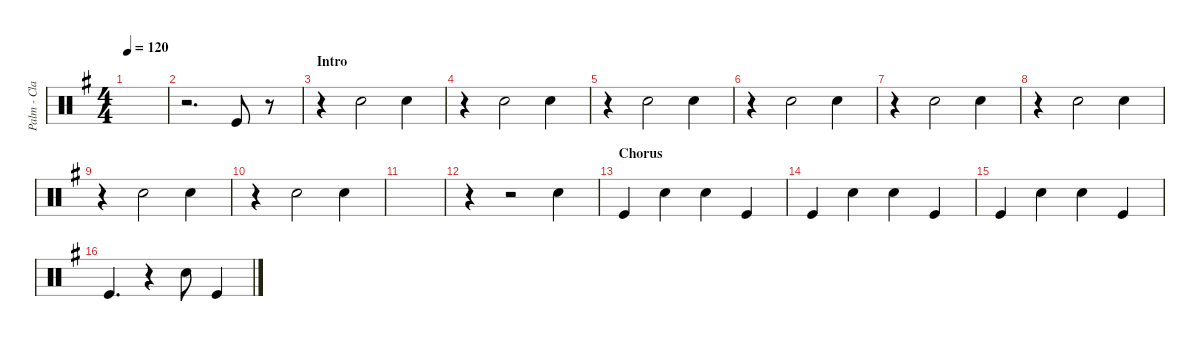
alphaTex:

\defaultSystemsLayout 4
\hideDynamics
\bracketExtendMode nobrackets
\otherSystemsTrackNameOrientation horizontal
\track ("Palm - Clap" "Palm - Cla") {defaultSystemsLayout 2 instrument percussion}
\staff {score}
\articulation defaults
\ts (4 4)
\tempo 120
\clef neutral
\ks g
|
r.2{d} "Kick (hit)"{acc forcenatural}.8 r.8 |
\section ("" "Intro")
r.4 "Hand Clap (hit)"{acc forcenatural}.2 "Hand Clap (hit)"{acc forcenatural}.4 |
r.4 "Hand Clap (hit)"{acc forcenatural}.2 "Hand Clap (hit)"{acc forcenatural}.4 |
r.4 "Hand Clap (hit)"{acc forcenatural}.2 "Hand Clap (hit)"{acc forcenatural}.4 |
r.4 "Hand Clap (hit)"{acc forcenatural}.2 "Hand Clap (hit)"{acc forcenatural}.4 |
r.4 "Hand Clap (hit)"{acc forcenatural}.2 "Hand Clap (hit)"{acc forcenatural}.4 |
r.4 "Hand Clap (hit)"{acc forcenatural}.2 "Hand Clap (hit)"{acc forcenatural}.4 |
r.4 "Hand Clap (hit)"{acc forcenatural}.2 "Hand Clap (hit)"{acc forcenatural}.4 |
r.4 "Hand Clap (hit)"{acc forcenatural}.2 "Hand Clap (hit)"{acc forcenatural}.4 |
|
r.4 r.2 "Hand Clap (hit)"{acc forcenatural}.4 |
\section ("" "Chorus")
"Kick (hit)"{acc forcenatural}.4 "Hand Clap (hit)"{acc forcenatural}.4 "Hand Clap (hit)"{acc forcenatural}.4 "Kick (hit)"{acc forcenatural}.4 |
"Kick (hit)"{acc forcenatural}.4 "Hand Clap (hit)"{acc forcenatural}.4 "Hand Clap (hit)"{acc forcenatural}.4 "Kick (hit)"{acc forcenatural}.4 |
"Kick (hit)"{acc forcenatural}.4 "Hand Clap (hit)"{acc forcenatural}.4 "Hand Clap (hit)"{acc forcenatural}.4 "Kick (hit)"{acc forcenatural}.4 |
"Kick (hit)"{acc forcenatural}.4{d} r.4 "Hand Clap (hit)"{acc forcenatural}.8 "Kick (hit)"{acc forcenatural}.4
